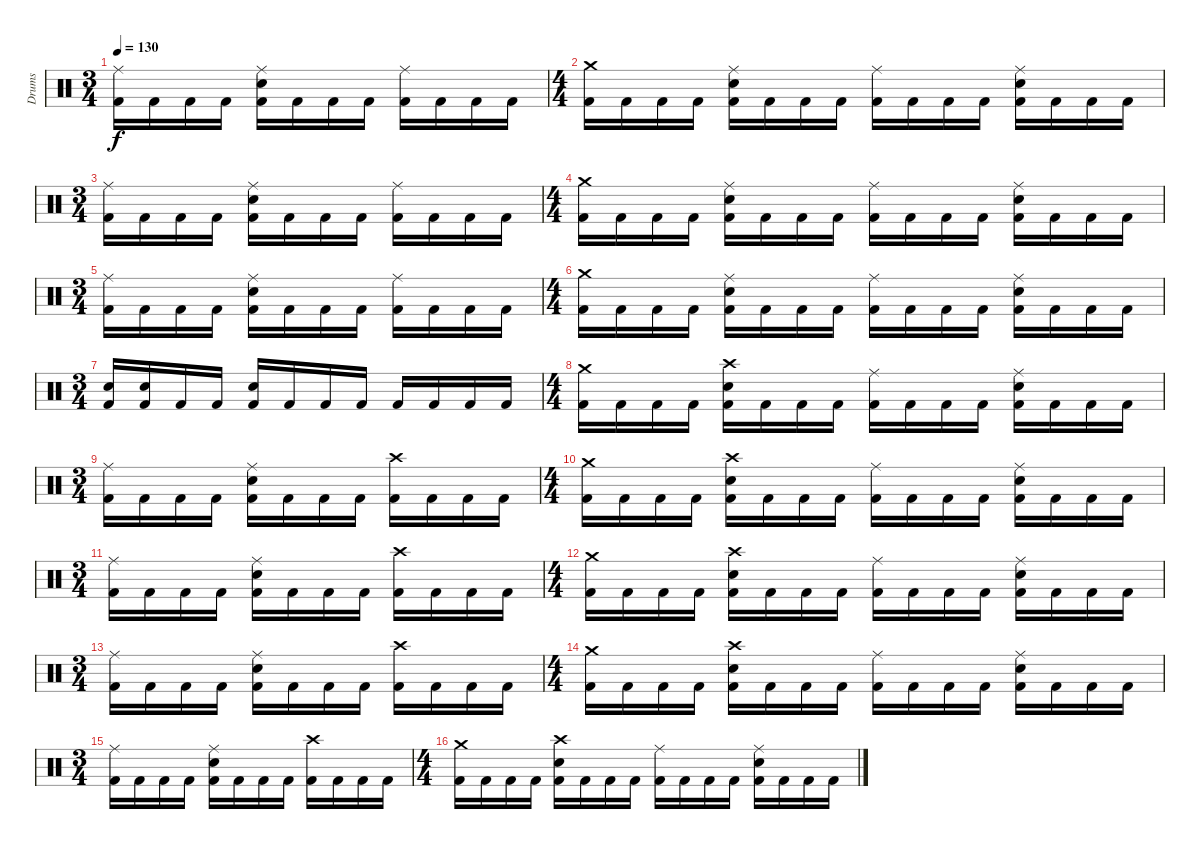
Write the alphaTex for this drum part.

\track ("Drums" "Drums") {instrument percussion}
\staff {score}
\articulation defaults
\ts (3 4)
\tempo 130
\clef neutral
\ks c
("Ride (middle)" "Kick (hit) 2").16{dy f} "Kick (hit) 2".16 "Kick (hit) 2".16 "Kick (hit) 2".16 ("Ride (middle)" "Electric Snare (hit)" "Kick (hit) 2").16 "Kick (hit) 2".16 "Kick (hit) 2".16 "Kick (hit) 2".16 ("Ride (middle)" "Kick (hit) 2").16 "Kick (hit) 2".16 "Kick (hit) 2".16 "Kick (hit) 2".16 |
\ts (4 4)
("Crash medium (hit)" "Kick (hit) 2").16 "Kick (hit) 2".16 "Kick (hit) 2".16 "Kick (hit) 2".16 ("Ride (middle)" "Electric Snare (hit)" "Kick (hit) 2").16 "Kick (hit) 2".16 "Kick (hit) 2".16 "Kick (hit) 2".16 ("Ride (middle)" "Kick (hit) 2").16 "Kick (hit) 2".16 "Kick (hit) 2".16 "Kick (hit) 2".16 ("Ride (middle)" "Electric Snare (hit)" "Kick (hit) 2").16 "Kick (hit) 2".16 "Kick (hit) 2".16 "Kick (hit) 2".16 |
\ts (3 4)
("Ride (middle)" "Kick (hit) 2").16 "Kick (hit) 2".16 "Kick (hit) 2".16 "Kick (hit) 2".16 ("Ride (middle)" "Electric Snare (hit)" "Kick (hit) 2").16 "Kick (hit) 2".16 "Kick (hit) 2".16 "Kick (hit) 2".16 ("Ride (middle)" "Kick (hit) 2").16 "Kick (hit) 2".16 "Kick (hit) 2".16 "Kick (hit) 2".16 |
\ts (4 4)
("Crash medium (hit)" "Kick (hit) 2").16 "Kick (hit) 2".16 "Kick (hit) 2".16 "Kick (hit) 2".16 ("Ride (middle)" "Electric Snare (hit)" "Kick (hit) 2").16 "Kick (hit) 2".16 "Kick (hit) 2".16 "Kick (hit) 2".16 ("Ride (middle)" "Kick (hit) 2").16 "Kick (hit) 2".16 "Kick (hit) 2".16 "Kick (hit) 2".16 ("Ride (middle)" "Electric Snare (hit)" "Kick (hit) 2").16 "Kick (hit) 2".16 "Kick (hit) 2".16 "Kick (hit) 2".16 |
\ts (3 4)
("Ride (middle)" "Kick (hit) 2").16 "Kick (hit) 2".16 "Kick (hit) 2".16 "Kick (hit) 2".16 ("Ride (middle)" "Electric Snare (hit)" "Kick (hit) 2").16 "Kick (hit) 2".16 "Kick (hit) 2".16 "Kick (hit) 2".16 ("Ride (middle)" "Kick (hit) 2").16 "Kick (hit) 2".16 "Kick (hit) 2".16 "Kick (hit) 2".16 |
\ts (4 4)
("Crash medium (hit)" "Kick (hit) 2").16 "Kick (hit) 2".16 "Kick (hit) 2".16 "Kick (hit) 2".16 ("Ride (middle)" "Electric Snare (hit)" "Kick (hit) 2").16 "Kick (hit) 2".16 "Kick (hit) 2".16 "Kick (hit) 2".16 ("Ride (middle)" "Kick (hit) 2").16 "Kick (hit) 2".16 "Kick (hit) 2".16 "Kick (hit) 2".16 ("Ride (middle)" "Electric Snare (hit)" "Kick (hit) 2").16 "Kick (hit) 2".16 "Kick (hit) 2".16 "Kick (hit) 2".16 |
\ts (3 4)
("Electric Snare (hit)" "Kick (hit) 2").16 ("Electric Snare (hit)" "Kick (hit) 2").16 "Kick (hit) 2".16 "Kick (hit) 2".16 ("Electric Snare (hit)" "Kick (hit) 2").16 "Kick (hit) 2".16 "Kick (hit) 2".16 "Kick (hit) 2".16 "Kick (hit) 2".16 "Kick (hit) 2".16 "Kick (hit) 2".16 "Kick (hit) 2".16 |
\ts (4 4)
("Crash medium (hit)" "Kick (hit) 2").16 "Kick (hit) 2".16 "Kick (hit) 2".16 "Kick (hit) 2".16 ("Crash high (hit)" "Electric Snare (hit)" "Kick (hit) 2").16 "Kick (hit) 2".16 "Kick (hit) 2".16 "Kick (hit) 2".16 ("Ride (middle)" "Kick (hit) 2").16 "Kick (hit) 2".16 "Kick (hit) 2".16 "Kick (hit) 2".16 ("Ride (middle)" "Electric Snare (hit)" "Kick (hit) 2").16 "Kick (hit) 2".16 "Kick (hit) 2".16 "Kick (hit) 2".16 |
\ts (3 4)
("Ride (middle)" "Kick (hit) 2").16 "Kick (hit) 2".16 "Kick (hit) 2".16 "Kick (hit) 2".16 ("Ride (middle)" "Electric Snare (hit)" "Kick (hit) 2").16 "Kick (hit) 2".16 "Kick (hit) 2".16 "Kick (hit) 2".16 ("Crash high (hit)" "Kick (hit) 2").16 "Kick (hit) 2".16 "Kick (hit) 2".16 "Kick (hit) 2".16 |
\ts (4 4)
("Crash medium (hit)" "Kick (hit) 2").16 "Kick (hit) 2".16 "Kick (hit) 2".16 "Kick (hit) 2".16 ("Crash high (hit)" "Electric Snare (hit)" "Kick (hit) 2").16 "Kick (hit) 2".16 "Kick (hit) 2".16 "Kick (hit) 2".16 ("Ride (middle)" "Kick (hit) 2").16 "Kick (hit) 2".16 "Kick (hit) 2".16 "Kick (hit) 2".16 ("Ride (middle)" "Electric Snare (hit)" "Kick (hit) 2").16 "Kick (hit) 2".16 "Kick (hit) 2".16 "Kick (hit) 2".16 |
\ts (3 4)
("Ride (middle)" "Kick (hit) 2").16 "Kick (hit) 2".16 "Kick (hit) 2".16 "Kick (hit) 2".16 ("Ride (middle)" "Electric Snare (hit)" "Kick (hit) 2").16 "Kick (hit) 2".16 "Kick (hit) 2".16 "Kick (hit) 2".16 ("Crash high (hit)" "Kick (hit) 2").16 "Kick (hit) 2".16 "Kick (hit) 2".16 "Kick (hit) 2".16 |
\ts (4 4)
("Crash medium (hit)" "Kick (hit) 2").16 "Kick (hit) 2".16 "Kick (hit) 2".16 "Kick (hit) 2".16 ("Crash high (hit)" "Electric Snare (hit)" "Kick (hit) 2").16 "Kick (hit) 2".16 "Kick (hit) 2".16 "Kick (hit) 2".16 ("Ride (middle)" "Kick (hit) 2").16 "Kick (hit) 2".16 "Kick (hit) 2".16 "Kick (hit) 2".16 ("Ride (middle)" "Electric Snare (hit)" "Kick (hit) 2").16 "Kick (hit) 2".16 "Kick (hit) 2".16 "Kick (hit) 2".16 |
\ts (3 4)
("Ride (middle)" "Kick (hit) 2").16 "Kick (hit) 2".16 "Kick (hit) 2".16 "Kick (hit) 2".16 ("Ride (middle)" "Electric Snare (hit)" "Kick (hit) 2").16 "Kick (hit) 2".16 "Kick (hit) 2".16 "Kick (hit) 2".16 ("Crash high (hit)" "Kick (hit) 2").16 "Kick (hit) 2".16 "Kick (hit) 2".16 "Kick (hit) 2".16 |
\ts (4 4)
("Crash medium (hit)" "Kick (hit) 2").16 "Kick (hit) 2".16 "Kick (hit) 2".16 "Kick (hit) 2".16 ("Crash high (hit)" "Electric Snare (hit)" "Kick (hit) 2").16 "Kick (hit) 2".16 "Kick (hit) 2".16 "Kick (hit) 2".16 ("Ride (middle)" "Kick (hit) 2").16 "Kick (hit) 2".16 "Kick (hit) 2".16 "Kick (hit) 2".16 ("Ride (middle)" "Electric Snare (hit)" "Kick (hit) 2").16 "Kick (hit) 2".16 "Kick (hit) 2".16 "Kick (hit) 2".16 |
\ts (3 4)
("Ride (middle)" "Kick (hit) 2").16 "Kick (hit) 2".16 "Kick (hit) 2".16 "Kick (hit) 2".16 ("Ride (middle)" "Electric Snare (hit)" "Kick (hit) 2").16 "Kick (hit) 2".16 "Kick (hit) 2".16 "Kick (hit) 2".16 ("Crash high (hit)" "Kick (hit) 2").16 "Kick (hit) 2".16 "Kick (hit) 2".16 "Kick (hit) 2".16 |
\ts (4 4)
("Crash medium (hit)" "Kick (hit) 2").16 "Kick (hit) 2".16 "Kick (hit) 2".16 "Kick (hit) 2".16 ("Crash high (hit)" "Electric Snare (hit)" "Kick (hit) 2").16 "Kick (hit) 2".16 "Kick (hit) 2".16 "Kick (hit) 2".16 ("Ride (middle)" "Kick (hit) 2").16 "Kick (hit) 2".16 "Kick (hit) 2".16 "Kick (hit) 2".16 ("Ride (middle)" "Electric Snare (hit)" "Kick (hit) 2").16 "Kick (hit) 2".16 "Kick (hit) 2".16 "Kick (hit) 2".16
